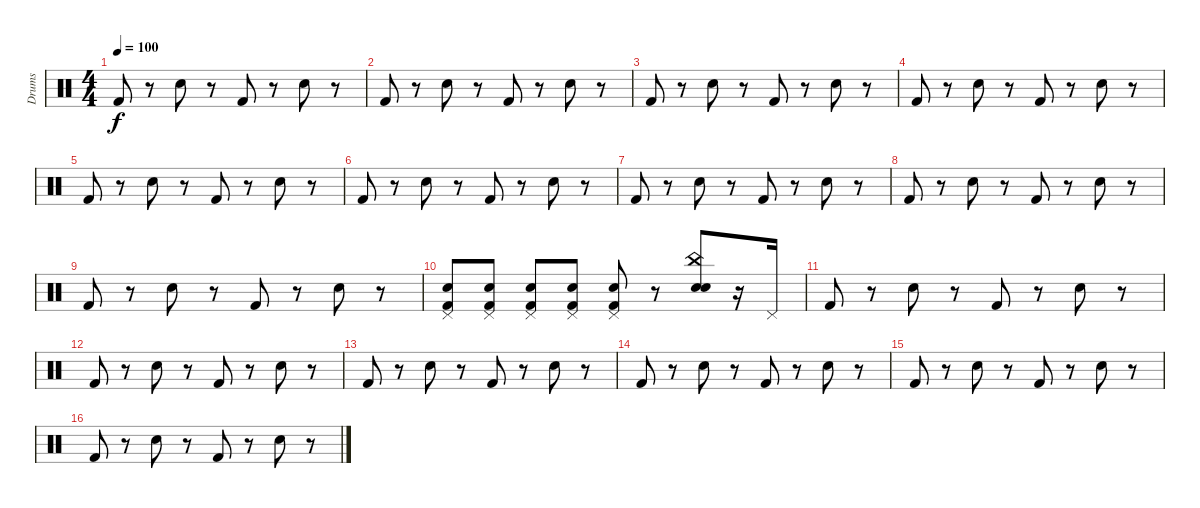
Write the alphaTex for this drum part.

\track ("Drums" "Drums") {instrument percussion}
\staff {score}
\articulation defaults
\ts (4 4)
\tempo 100
\clef neutral
\ks c "Kick (hit) 2".8{dy f}
r.8 "Snare (hit) 2".8 r.8 "Kick (hit) 2".8 r.8 "Snare (hit) 2".8 r.8 |
"Kick (hit) 2".8 r.8 "Snare (hit) 2".8 r.8 "Kick (hit) 2".8 r.8 "Snare (hit) 2".8 r.8 |
"Kick (hit) 2".8 r.8 "Snare (hit) 2".8 r.8 "Kick (hit) 2".8 r.8 "Snare (hit) 2".8 r.8 |
"Kick (hit) 2".8 r.8 "Snare (hit) 2".8 r.8 "Kick (hit) 2".8 r.8 "Snare (hit) 2".8 r.8 |
"Kick (hit) 2".8 r.8 "Snare (hit) 2".8 r.8 "Kick (hit) 2".8 r.8 "Snare (hit) 2".8 r.8 |
"Kick (hit) 2".8 r.8 "Snare (hit) 2".8 r.8 "Kick (hit) 2".8 r.8 "Snare (hit) 2".8 r.8 |
"Kick (hit) 2".8 r.8 "Snare (hit) 2".8 r.8 "Kick (hit) 2".8 r.8 "Snare (hit) 2".8 r.8 |
"Kick (hit) 2".8 r.8 "Snare (hit) 2".8 r.8 "Kick (hit) 2".8 r.8 "Snare (hit) 2".8 r.8 |
"Kick (hit) 2".8 r.8 "Snare (hit) 2".8 r.8 "Kick (hit) 2".8 r.8 "Snare (hit) 2".8 r.8 |
("Pedal Hi-Hat (hit)" "Snare (hit) 2" "Kick (hit) 2").8 ("Pedal Hi-Hat (hit)" "Snare (hit) 2" "Kick (hit) 2").8 ("Pedal Hi-Hat (hit)" "Snare (hit) 2" "Kick (hit) 2").8 ("Pedal Hi-Hat (hit)" "Snare (hit) 2" "Kick (hit) 2").8 ("Pedal Hi-Hat (hit)" "Snare (hit) 2" "Kick (hit) 2").8 r.8 ("China (hit)" "Snare (hit) 2" "Electric Snare (hit)").8 r.16 "Pedal Hi-Hat (hit)".16 |
"Kick (hit) 2".8 r.8 "Snare (hit) 2".8 r.8 "Kick (hit) 2".8 r.8 "Snare (hit) 2".8 r.8 |
"Kick (hit) 2".8 r.8 "Snare (hit) 2".8 r.8 "Kick (hit) 2".8 r.8 "Snare (hit) 2".8 r.8 |
"Kick (hit) 2".8 r.8 "Snare (hit) 2".8 r.8 "Kick (hit) 2".8 r.8 "Snare (hit) 2".8 r.8 |
"Kick (hit) 2".8 r.8 "Snare (hit) 2".8 r.8 "Kick (hit) 2".8 r.8 "Snare (hit) 2".8 r.8 |
"Kick (hit) 2".8 r.8 "Snare (hit) 2".8 r.8 "Kick (hit) 2".8 r.8 "Snare (hit) 2".8 r.8 |
"Kick (hit) 2".8 r.8 "Snare (hit) 2".8 r.8 "Kick (hit) 2".8 r.8 "Snare (hit) 2".8 r.8
